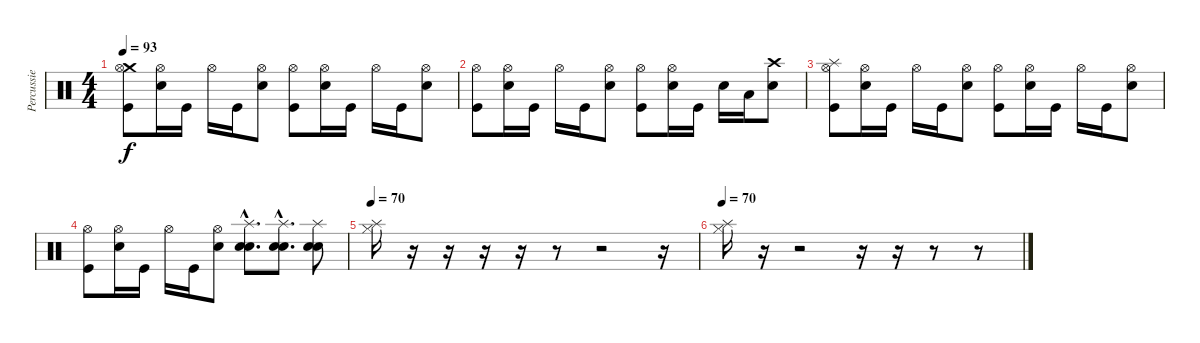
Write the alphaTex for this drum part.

\track ("Percussie" "Percussie") {instrument percussion}
\staff {score}
\articulation defaults
\ts (4 4)
\tempo 93
\clef neutral
\ks c
("Crash medium (hit)" "Hi-Hat (open)" "Kick (hit)").8{dy f} ("Electric Snare (hit)" "Hi-Hat (open)").16 "Kick (hit)".16 "Hi-Hat (open)".16 "Kick (hit)".16 ("Electric Snare (hit)" "Hi-Hat (open)").8 ("Hi-Hat (open)" "Kick (hit)").8 ("Electric Snare (hit)" "Hi-Hat (open)").16 "Kick (hit)".16 "Hi-Hat (open)".16 "Kick (hit)".16 ("Electric Snare (hit)" "Hi-Hat (open)").8 |
("Hi-Hat (open)" "Kick (hit)").8 ("Electric Snare (hit)" "Hi-Hat (open)").16 "Kick (hit)".16 "Hi-Hat (open)".16 "Kick (hit)".16 ("Electric Snare (hit)" "Hi-Hat (open)").8 ("Hi-Hat (open)" "Kick (hit)").8 ("Electric Snare (hit)" "Hi-Hat (open)").16 "Kick (hit)".16 "Snare (hit) 2".16 "Low Floor Tom (hit)".16 ("Electric Snare (hit)" "Crash high (hit)").8 |
("Splash (hit)" "Hi-Hat (open)" "Kick (hit)").8 ("Electric Snare (hit)" "Hi-Hat (open)").16 "Kick (hit)".16 "Hi-Hat (open)".16 "Kick (hit)".16 ("Electric Snare (hit)" "Hi-Hat (open)").8 ("Hi-Hat (open)" "Kick (hit)").8 ("Electric Snare (hit)" "Hi-Hat (open)").16 "Kick (hit)".16 "Hi-Hat (open)".16 "Kick (hit)".16 ("Electric Snare (hit)" "Hi-Hat (open)").8 |
("Hi-Hat (open)" "Kick (hit)").8 ("Electric Snare (hit)" "Hi-Hat (open)").16 "Kick (hit)".16 "Hi-Hat (open)".16 "Kick (hit)".16 ("Electric Snare (hit)" "Hi-Hat (open)").8 ("Splash (hit)"{hac} "Electric Snare (hit)"{hac} "Snare (hit) 2"{hac}).8{d} ("Splash (hit)"{hac} "Electric Snare (hit)"{hac} "Snare (hit) 2"{hac}).8{d} ("Splash (hit)" "Electric Snare (hit)" "Snare (hit) 2").8 |
\tempo 70
("Hi-Hat (closed)" "Splash (hit)").16 r.16 r.16 r.16 r.16 r.8 r.2 r.16 |
\tempo 70
("Hi-Hat (closed)" "Splash (hit)").16 r.16 r.2 r.16 r.16 r.8 r.8
